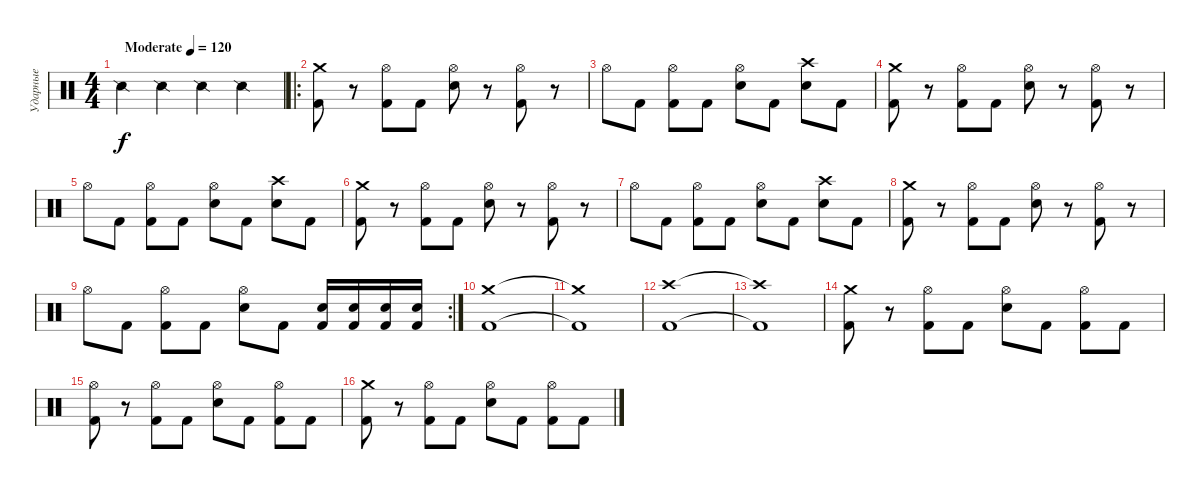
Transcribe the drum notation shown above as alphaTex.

\track ("Ударные" "Ударные") {instrument percussion}
\staff {score}
\articulation defaults
\ts (4 4)
\tempo (120 "Moderate")
\clef neutral
\ks c "Snare (side stick) 2".4{dy f} "Snare (side stick) 2".4 "Snare (side stick) 2".4 "Snare (side stick) 2".4
|
\ro
("Crash medium (hit)" "Kick (hit) 2").8 r.8 ("Hi-Hat (open)" "Kick (hit) 2").8 "Kick (hit) 2".8 ("Hi-Hat (open)" "Electric Snare (hit)").8 r.8 ("Hi-Hat (open)" "Kick (hit) 2").8 r.8 |
"Hi-Hat (open)".8 "Kick (hit) 2".8 ("Hi-Hat (open)" "Kick (hit) 2").8 "Kick (hit) 2".8 ("Hi-Hat (open)" "Electric Snare (hit)").8 "Kick (hit) 2".8 ("Crash high (hit)" "Electric Snare (hit)").8 "Kick (hit) 2".8 |
("Crash medium (hit)" "Kick (hit) 2").8 r.8 ("Hi-Hat (open)" "Kick (hit) 2").8 "Kick (hit) 2".8 ("Hi-Hat (open)" "Electric Snare (hit)").8 r.8 ("Hi-Hat (open)" "Kick (hit) 2").8 r.8 |
"Hi-Hat (open)".8 "Kick (hit) 2".8 ("Hi-Hat (open)" "Kick (hit) 2").8 "Kick (hit) 2".8 ("Hi-Hat (open)" "Electric Snare (hit)").8 "Kick (hit) 2".8 ("Crash high (hit)" "Electric Snare (hit)").8 "Kick (hit) 2".8 |
("Crash medium (hit)" "Kick (hit) 2").8 r.8 ("Hi-Hat (open)" "Kick (hit) 2").8 "Kick (hit) 2".8 ("Hi-Hat (open)" "Electric Snare (hit)").8 r.8 ("Hi-Hat (open)" "Kick (hit) 2").8 r.8 |
"Hi-Hat (open)".8 "Kick (hit) 2".8 ("Hi-Hat (open)" "Kick (hit) 2").8 "Kick (hit) 2".8 ("Hi-Hat (open)" "Electric Snare (hit)").8 "Kick (hit) 2".8 ("Crash high (hit)" "Electric Snare (hit)").8 "Kick (hit) 2".8 |
("Crash medium (hit)" "Kick (hit) 2").8 r.8 ("Hi-Hat (open)" "Kick (hit) 2").8 "Kick (hit) 2".8 ("Hi-Hat (open)" "Electric Snare (hit)").8 r.8 ("Hi-Hat (open)" "Kick (hit) 2").8 r.8 |
\rc 2 "Hi-Hat (open)".8 "Kick (hit) 2".8
("Hi-Hat (open)" "Kick (hit) 2").8 "Kick (hit) 2".8 ("Hi-Hat (open)" "Electric Snare (hit)").8 "Kick (hit) 2".8 ("Electric Snare (hit)" "Kick (hit) 2").16 ("Electric Snare (hit)" "Kick (hit) 2").16 ("Electric Snare (hit)" "Kick (hit) 2").16 ("Electric Snare (hit)" "Kick (hit) 2").16 |
("Crash medium (hit)" "Kick (hit) 2").1 |
("Crash medium (hit)"{t} "Kick (hit) 2"{t}).1 |
("Crash high (hit)" "Kick (hit) 2").1 |
("Crash high (hit)"{t} "Kick (hit) 2"{t}).1 |
("Crash medium (hit)" "Kick (hit) 2").8 r.8 ("Hi-Hat (open)" "Kick (hit) 2").8 "Kick (hit) 2".8 ("Hi-Hat (open)" "Electric Snare (hit)").8 "Kick (hit) 2".8 ("Hi-Hat (open)" "Kick (hit) 2").8 "Kick (hit) 2".8 |
("Hi-Hat (open)" "Kick (hit) 2").8 r.8 ("Hi-Hat (open)" "Kick (hit) 2").8 "Kick (hit) 2".8 ("Hi-Hat (open)" "Electric Snare (hit)").8 "Kick (hit) 2".8 ("Hi-Hat (open)" "Kick (hit) 2").8 "Kick (hit) 2".8 |
("Crash medium (hit)" "Kick (hit) 2").8 r.8 ("Hi-Hat (open)" "Kick (hit) 2").8 "Kick (hit) 2".8 ("Hi-Hat (open)" "Electric Snare (hit)").8 "Kick (hit) 2".8 ("Hi-Hat (open)" "Kick (hit) 2").8 "Kick (hit) 2".8
